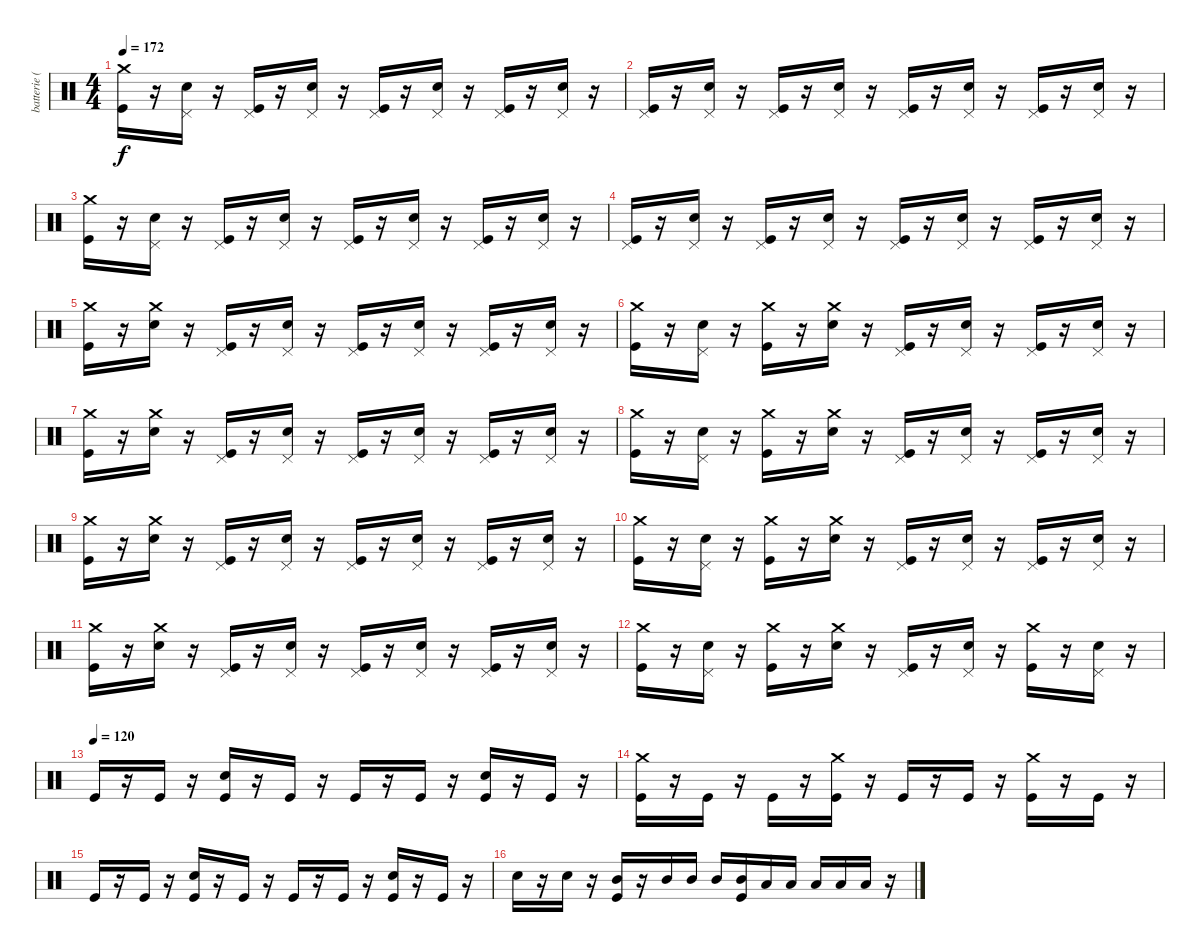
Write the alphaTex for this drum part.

\track ("batterie ( Louie Beatto ) " "batterie (") {instrument percussion}
\staff {score}
\articulation defaults
\ts (4 4)
\tempo 172
\clef neutral
\ks c
("Crash medium (hit)" "Kick (hit)").16{dy f} r.16 ("Pedal Hi-Hat (hit)" "Snare (hit) 2").16 r.16 ("Pedal Hi-Hat (hit)" "Kick (hit)").16 r.16 ("Pedal Hi-Hat (hit)" "Snare (hit) 2").16 r.16 ("Pedal Hi-Hat (hit)" "Kick (hit)").16 r.16 ("Pedal Hi-Hat (hit)" "Snare (hit) 2").16 r.16 ("Pedal Hi-Hat (hit)" "Kick (hit)").16 r.16 ("Pedal Hi-Hat (hit)" "Snare (hit) 2").16 r.16 |
("Pedal Hi-Hat (hit)" "Kick (hit)").16 r.16 ("Pedal Hi-Hat (hit)" "Snare (hit) 2").16 r.16 ("Pedal Hi-Hat (hit)" "Kick (hit)").16 r.16 ("Pedal Hi-Hat (hit)" "Snare (hit) 2").16 r.16 ("Pedal Hi-Hat (hit)" "Kick (hit)").16 r.16 ("Pedal Hi-Hat (hit)" "Snare (hit) 2").16 r.16 ("Pedal Hi-Hat (hit)" "Kick (hit)").16 r.16 ("Pedal Hi-Hat (hit)" "Snare (hit) 2").16 r.16 |
("Crash medium (hit)" "Kick (hit)").16 r.16 ("Pedal Hi-Hat (hit)" "Snare (hit) 2").16 r.16 ("Pedal Hi-Hat (hit)" "Kick (hit)").16 r.16 ("Pedal Hi-Hat (hit)" "Snare (hit) 2").16 r.16 ("Pedal Hi-Hat (hit)" "Kick (hit)").16 r.16 ("Pedal Hi-Hat (hit)" "Snare (hit) 2").16 r.16 ("Pedal Hi-Hat (hit)" "Kick (hit)").16 r.16 ("Pedal Hi-Hat (hit)" "Snare (hit) 2").16 r.16 |
("Pedal Hi-Hat (hit)" "Kick (hit)").16 r.16 ("Pedal Hi-Hat (hit)" "Snare (hit) 2").16 r.16 ("Pedal Hi-Hat (hit)" "Kick (hit)").16 r.16 ("Pedal Hi-Hat (hit)" "Snare (hit) 2").16 r.16 ("Pedal Hi-Hat (hit)" "Kick (hit)").16 r.16 ("Pedal Hi-Hat (hit)" "Snare (hit) 2").16 r.16 ("Pedal Hi-Hat (hit)" "Kick (hit)").16 r.16 ("Pedal Hi-Hat (hit)" "Snare (hit) 2").16 r.16 |
("Crash medium (hit)" "Kick (hit)").16 r.16 ("Crash medium (hit)" "Snare (hit) 2").16 r.16 ("Pedal Hi-Hat (hit)" "Kick (hit)").16 r.16 ("Pedal Hi-Hat (hit)" "Snare (hit) 2").16 r.16 ("Pedal Hi-Hat (hit)" "Kick (hit)").16 r.16 ("Pedal Hi-Hat (hit)" "Snare (hit) 2").16 r.16 ("Pedal Hi-Hat (hit)" "Kick (hit)").16 r.16 ("Pedal Hi-Hat (hit)" "Snare (hit) 2").16 r.16 |
("Crash medium (hit)" "Kick (hit)").16 r.16 ("Pedal Hi-Hat (hit)" "Snare (hit) 2").16 r.16 ("Crash medium (hit)" "Kick (hit)").16 r.16 ("Crash medium (hit)" "Snare (hit) 2").16 r.16 ("Pedal Hi-Hat (hit)" "Kick (hit)").16 r.16 ("Pedal Hi-Hat (hit)" "Snare (hit) 2").16 r.16 ("Pedal Hi-Hat (hit)" "Kick (hit)").16 r.16 ("Pedal Hi-Hat (hit)" "Snare (hit) 2").16 r.16 |
("Crash medium (hit)" "Kick (hit)").16 r.16 ("Crash medium (hit)" "Snare (hit) 2").16 r.16 ("Pedal Hi-Hat (hit)" "Kick (hit)").16 r.16 ("Pedal Hi-Hat (hit)" "Snare (hit) 2").16 r.16 ("Pedal Hi-Hat (hit)" "Kick (hit)").16 r.16 ("Pedal Hi-Hat (hit)" "Snare (hit) 2").16 r.16 ("Pedal Hi-Hat (hit)" "Kick (hit)").16 r.16 ("Pedal Hi-Hat (hit)" "Snare (hit) 2").16 r.16 |
("Crash medium (hit)" "Kick (hit)").16 r.16 ("Pedal Hi-Hat (hit)" "Snare (hit) 2").16 r.16 ("Crash medium (hit)" "Kick (hit)").16 r.16 ("Crash medium (hit)" "Snare (hit) 2").16 r.16 ("Pedal Hi-Hat (hit)" "Kick (hit)").16 r.16 ("Pedal Hi-Hat (hit)" "Snare (hit) 2").16 r.16 ("Pedal Hi-Hat (hit)" "Kick (hit)").16 r.16 ("Pedal Hi-Hat (hit)" "Snare (hit) 2").16 r.16 |
("Crash medium (hit)" "Kick (hit)").16 r.16 ("Crash medium (hit)" "Snare (hit) 2").16 r.16 ("Pedal Hi-Hat (hit)" "Kick (hit)").16 r.16 ("Pedal Hi-Hat (hit)" "Snare (hit) 2").16 r.16 ("Pedal Hi-Hat (hit)" "Kick (hit)").16 r.16 ("Pedal Hi-Hat (hit)" "Snare (hit) 2").16 r.16 ("Pedal Hi-Hat (hit)" "Kick (hit)").16 r.16 ("Pedal Hi-Hat (hit)" "Snare (hit) 2").16 r.16 |
("Crash medium (hit)" "Kick (hit)").16 r.16 ("Pedal Hi-Hat (hit)" "Snare (hit) 2").16 r.16 ("Crash medium (hit)" "Kick (hit)").16 r.16 ("Crash medium (hit)" "Snare (hit) 2").16 r.16 ("Pedal Hi-Hat (hit)" "Kick (hit)").16 r.16 ("Pedal Hi-Hat (hit)" "Snare (hit) 2").16 r.16 ("Pedal Hi-Hat (hit)" "Kick (hit)").16 r.16 ("Pedal Hi-Hat (hit)" "Snare (hit) 2").16 r.16 |
("Crash medium (hit)" "Kick (hit)").16 r.16 ("Crash medium (hit)" "Snare (hit) 2").16 r.16 ("Pedal Hi-Hat (hit)" "Kick (hit)").16 r.16 ("Pedal Hi-Hat (hit)" "Snare (hit) 2").16 r.16 ("Pedal Hi-Hat (hit)" "Kick (hit)").16 r.16 ("Pedal Hi-Hat (hit)" "Snare (hit) 2").16 r.16 ("Pedal Hi-Hat (hit)" "Kick (hit)").16 r.16 ("Pedal Hi-Hat (hit)" "Snare (hit) 2").16 r.16 |
("Crash medium (hit)" "Kick (hit)").16 r.16 ("Pedal Hi-Hat (hit)" "Snare (hit) 2").16 r.16 ("Crash medium (hit)" "Kick (hit)").16 r.16 ("Crash medium (hit)" "Snare (hit) 2").16 r.16 ("Pedal Hi-Hat (hit)" "Kick (hit)").16 r.16 ("Pedal Hi-Hat (hit)" "Snare (hit) 2").16 r.16 ("Crash medium (hit)" "Kick (hit)").16 r.16 ("Pedal Hi-Hat (hit)" "Snare (hit) 2").16 r.16 |
\tempo (120)
"Kick (hit)".16 r.16 "Kick (hit)".16 r.16 ("Snare (hit) 2" "Kick (hit)").16 r.16 "Kick (hit)".16 r.16 "Kick (hit)".16 r.16 "Kick (hit)".16 r.16 ("Snare (hit) 2" "Kick (hit)").16 r.16 "Kick (hit)".16 r.16 |
("Crash medium (hit)" "Kick (hit)").16 r.16 "Kick (hit)".16 r.16 "Kick (hit)".16 r.16 ("Crash medium (hit)" "Kick (hit)").16 r.16 "Kick (hit)".16 r.16 "Kick (hit)".16 r.16 ("Crash medium (hit)" "Kick (hit)").16 r.16 "Kick (hit)".16 r.16 |
"Kick (hit)".16 r.16 "Kick (hit)".16 r.16 ("Snare (hit) 2" "Kick (hit)").16 r.16 "Kick (hit)".16 r.16 "Kick (hit)".16 r.16 "Kick (hit)".16 r.16 ("Snare (hit) 2" "Kick (hit)").16 r.16 "Kick (hit)".16 r.16 |
"Snare (hit) 2".16 r.16 "Snare (hit) 2".16 r.16 ("Mid Tom (hit)" "Kick (hit)").16 r.16 "Mid Tom (hit)".16 "Mid Tom (hit)".16 "Mid Tom (hit)".16 ("Mid Tom (hit)" "Kick (hit)").16 "Low Tom (hit)".16 "Low Tom (hit)".16 "Low Tom (hit)".16 "Low Tom (hit)".16 "Low Tom (hit)".16 r.16
